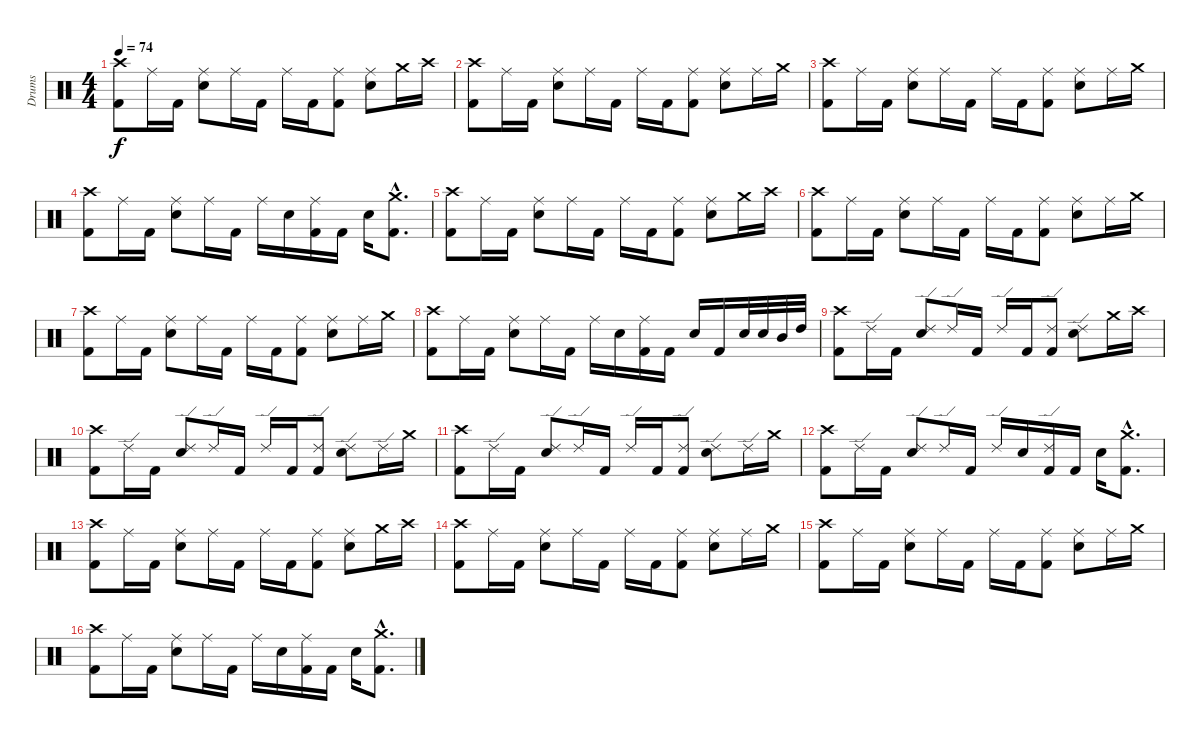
\track ("Drums" "Drums") {instrument percussion}
\staff {score}
\articulation defaults
\ts (4 4)
\tempo 74
\clef neutral
\ks c
("Crash high (hit)" "Kick (hit) 2").8{dy f} "Ride (middle)".16 "Kick (hit) 2".16 ("Ride (middle)" "Snare (hit) 2").8 "Ride (middle)".16 "Kick (hit) 2".16 "Ride (middle)".16 "Kick (hit) 2".16 ("Ride (middle)" "Kick (hit) 2").8 ("Ride (middle)" "Snare (hit) 2").8 "Crash medium (hit)".16 "Crash high (hit)".16 |
("Crash high (hit)" "Kick (hit) 2").8 "Ride (middle)".16 "Kick (hit) 2".16 ("Ride (middle)" "Snare (hit) 2").8 "Ride (middle)".16 "Kick (hit) 2".16 "Ride (middle)".16 "Kick (hit) 2".16 ("Ride (middle)" "Kick (hit) 2").8 ("Ride (middle)" "Snare (hit) 2").8 "Ride (middle)".16 "Crash medium (hit)".16 |
("Crash high (hit)" "Kick (hit) 2").8 "Ride (middle)".16 "Kick (hit) 2".16 ("Ride (middle)" "Snare (hit) 2").8 "Ride (middle)".16 "Kick (hit) 2".16 "Ride (middle)".16 "Kick (hit) 2".16 ("Ride (middle)" "Kick (hit) 2").8 ("Ride (middle)" "Snare (hit) 2").8 "Ride (middle)".16 "Crash medium (hit)".16 |
("Crash high (hit)" "Kick (hit) 2").8 "Ride (middle)".16 "Kick (hit) 2".16 ("Ride (middle)" "Snare (hit) 2").8 "Ride (middle)".16 "Kick (hit) 2".16 "Ride (middle)".16 "Snare (hit) 2".16 ("Ride (middle)" "Kick (hit) 2").16 "Kick (hit) 2".16 "Snare (hit) 2".16 ("Crash medium (hit)"{hac} "Kick (hit) 2"{hac}).8{d} |
("Crash high (hit)" "Kick (hit) 2").8 "Ride (middle)".16 "Kick (hit) 2".16 ("Ride (middle)" "Snare (hit) 2").8 "Ride (middle)".16 "Kick (hit) 2".16 "Ride (middle)".16 "Kick (hit) 2".16 ("Ride (middle)" "Kick (hit) 2").8 ("Ride (middle)" "Electric Snare (hit)").8 "Crash medium (hit)".16 "Crash high (hit)".16 |
("Crash high (hit)" "Kick (hit) 2").8 "Ride (middle)".16 "Kick (hit) 2".16 ("Ride (middle)" "Snare (hit) 2").8 "Ride (middle)".16 "Kick (hit) 2".16 "Ride (middle)".16 "Kick (hit) 2".16 ("Ride (middle)" "Kick (hit) 2").8 ("Ride (middle)" "Snare (hit) 2").8 "Ride (middle)".16 "Crash medium (hit)".16 |
("Crash high (hit)" "Kick (hit) 2").8 "Ride (middle)".16 "Kick (hit) 2".16 ("Ride (middle)" "Snare (hit) 2").8 "Ride (middle)".16 "Kick (hit) 2".16 "Ride (middle)".16 "Kick (hit) 2".16 ("Ride (middle)" "Kick (hit) 2").8 ("Ride (middle)" "Snare (hit) 2").8 "Ride (middle)".16 "Crash medium (hit)".16 |
("Crash high (hit)" "Kick (hit) 2").8 "Ride (middle)".16 "Kick (hit) 2".16 ("Ride (middle)" "Snare (hit) 2").8 "Ride (middle)".16 "Kick (hit) 2".16 "Ride (middle)".16 "Snare (hit) 2".16 ("Ride (middle)" "Kick (hit) 2").16 "Kick (hit) 2".16 "Snare (hit) 2".16 "Kick (hit) 2".16 "Snare (hit) 2".32 "Snare (hit) 2".32 "Mid Tom (hit)".32 "High Tom (hit)".32 |
("Crash high (hit)" "Kick (hit) 2").8 "Ride (edge) 2".16 "Kick (hit) 2".16 ("Ride (edge) 2" "Snare (hit) 2").8 "Ride (edge) 2".16 "Kick (hit) 2".16 "Ride (edge) 2".16 "Kick (hit) 2".16 ("Ride (edge) 2" "Kick (hit) 2").8 ("Ride (edge) 2" "Snare (hit) 2").8 "Crash medium (hit)".16 "Crash high (hit)".16 |
("Crash high (hit)" "Kick (hit) 2").8 "Ride (edge) 2".16 "Kick (hit) 2".16 ("Ride (edge) 2" "Snare (hit) 2").8 "Ride (edge) 2".16 "Kick (hit) 2".16 "Ride (edge) 2".16 "Kick (hit) 2".16 ("Ride (edge) 2" "Kick (hit) 2").8 ("Ride (edge) 2" "Snare (hit) 2").8 "Ride (edge) 2".16 "Crash medium (hit)".16 |
("Crash high (hit)" "Kick (hit) 2").8 "Ride (edge) 2".16 "Kick (hit) 2".16 ("Ride (edge) 2" "Snare (hit) 2").8 "Ride (edge) 2".16 "Kick (hit) 2".16 "Ride (edge) 2".16 "Kick (hit) 2".16 ("Ride (edge) 2" "Kick (hit) 2").8 ("Ride (edge) 2" "Snare (hit) 2").8 "Ride (edge) 2".16 "Crash medium (hit)".16 |
("Crash high (hit)" "Kick (hit) 2").8 "Ride (edge) 2".16 "Kick (hit) 2".16 ("Ride (edge) 2" "Snare (hit) 2").8 "Ride (edge) 2".16 "Kick (hit) 2".16 "Ride (edge) 2".16 "Snare (hit) 2".16 ("Ride (edge) 2" "Kick (hit) 2").16 "Kick (hit) 2".16 "Snare (hit) 2".16 ("Crash medium (hit)"{hac} "Kick (hit) 2"{hac}).8{d} |
("Crash high (hit)" "Kick (hit) 2").8 "Ride (middle)".16 "Kick (hit) 2".16 ("Ride (middle)" "Snare (hit) 2").8 "Ride (middle)".16 "Kick (hit) 2".16 "Ride (middle)".16 "Kick (hit) 2".16 ("Ride (middle)" "Kick (hit) 2").8 ("Ride (middle)" "Snare (hit) 2").8 "Crash medium (hit)".16 "Crash high (hit)".16 |
("Crash high (hit)" "Kick (hit) 2").8 "Ride (middle)".16 "Kick (hit) 2".16 ("Ride (middle)" "Snare (hit) 2").8 "Ride (middle)".16 "Kick (hit) 2".16 "Ride (middle)".16 "Kick (hit) 2".16 ("Ride (middle)" "Kick (hit) 2").8 ("Ride (middle)" "Snare (hit) 2").8 "Ride (middle)".16 "Crash medium (hit)".16 |
("Crash high (hit)" "Kick (hit) 2").8 "Ride (middle)".16 "Kick (hit) 2".16 ("Ride (middle)" "Snare (hit) 2").8 "Ride (middle)".16 "Kick (hit) 2".16 "Ride (middle)".16 "Kick (hit) 2".16 ("Ride (middle)" "Kick (hit) 2").8 ("Ride (middle)" "Snare (hit) 2").8 "Ride (middle)".16 "Crash medium (hit)".16 |
("Crash high (hit)" "Kick (hit) 2").8 "Ride (middle)".16 "Kick (hit) 2".16 ("Ride (middle)" "Snare (hit) 2").8 "Ride (middle)".16 "Kick (hit) 2".16 "Ride (middle)".16 "Snare (hit) 2".16 ("Ride (middle)" "Kick (hit) 2").16 "Kick (hit) 2".16 "Snare (hit) 2".16 ("Crash medium (hit)"{hac} "Kick (hit) 2"{hac}).8{d}
